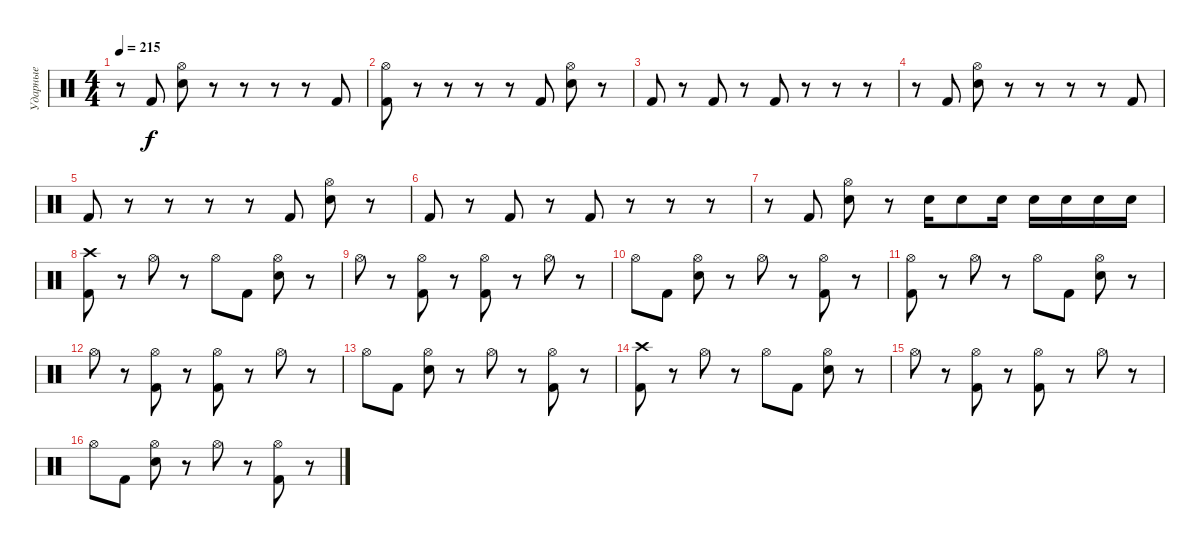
\track ("Ударные" "Ударные") {instrument percussion}
\staff {score}
\articulation defaults
\ts (4 4)
\tempo 215
\clef neutral
\ks c
r.8{dy f} "Kick (hit) 2".8 ("Hi-Hat (open)" "Snare (hit) 2").8 r.8 r.8 r.8 r.8 "Kick (hit) 2".8 |
("Hi-Hat (open)" "Kick (hit) 2").8 r.8 r.8 r.8 r.8 "Kick (hit) 2".8 ("Hi-Hat (open)" "Snare (hit) 2").8 r.8 |
"Kick (hit) 2".8 r.8 "Kick (hit) 2".8 r.8 "Kick (hit) 2".8 r.8 r.8 r.8 |
r.8 "Kick (hit) 2".8 ("Hi-Hat (open)" "Snare (hit) 2").8 r.8 r.8 r.8 r.8 "Kick (hit) 2".8 |
"Kick (hit) 2".8 r.8 r.8 r.8 r.8 "Kick (hit) 2".8 ("Hi-Hat (open)" "Snare (hit) 2").8 r.8 |
"Kick (hit) 2".8 r.8 "Kick (hit) 2".8 r.8 "Kick (hit) 2".8 r.8 r.8 r.8 |
r.8 "Kick (hit) 2".8 ("Hi-Hat (open)" "Snare (hit) 2").8 r.8 "Snare (hit) 2".16 "Snare (hit) 2".8 "Snare (hit) 2".16 "Snare (hit) 2".16 "Snare (hit) 2".16 "Snare (hit) 2".16 "Snare (hit) 2".16 |
("Crash high (hit)" "Kick (hit) 2").8 r.8 "Hi-Hat (open)".8 r.8 "Hi-Hat (open)".8 "Kick (hit) 2".8 ("Hi-Hat (open)" "Snare (hit) 2").8 r.8 |
"Hi-Hat (open)".8 r.8 ("Hi-Hat (open)" "Kick (hit) 2").8 r.8 ("Hi-Hat (open)" "Kick (hit) 2").8 r.8 "Hi-Hat (open)".8 r.8 |
"Hi-Hat (open)".8 "Kick (hit) 2".8 ("Hi-Hat (open)" "Snare (hit) 2").8 r.8 "Hi-Hat (open)".8 r.8 ("Hi-Hat (open)" "Kick (hit) 2").8 r.8 |
("Hi-Hat (open)" "Kick (hit) 2").8 r.8 "Hi-Hat (open)".8 r.8 "Hi-Hat (open)".8 "Kick (hit) 2".8 ("Hi-Hat (open)" "Snare (hit) 2").8 r.8 |
"Hi-Hat (open)".8 r.8 ("Hi-Hat (open)" "Kick (hit) 2").8 r.8 ("Hi-Hat (open)" "Kick (hit) 2").8 r.8 "Hi-Hat (open)".8 r.8 |
"Hi-Hat (open)".8 "Kick (hit) 2".8 ("Hi-Hat (open)" "Snare (hit) 2").8 r.8 "Hi-Hat (open)".8 r.8 ("Hi-Hat (open)" "Kick (hit) 2").8 r.8 |
("Crash high (hit)" "Kick (hit) 2").8 r.8 "Hi-Hat (open)".8 r.8 "Hi-Hat (open)".8 "Kick (hit) 2".8 ("Hi-Hat (open)" "Snare (hit) 2").8 r.8 |
"Hi-Hat (open)".8 r.8 ("Hi-Hat (open)" "Kick (hit) 2").8 r.8 ("Hi-Hat (open)" "Kick (hit) 2").8 r.8 "Hi-Hat (open)".8 r.8 |
"Hi-Hat (open)".8 "Kick (hit) 2".8 ("Hi-Hat (open)" "Snare (hit) 2").8 r.8 "Hi-Hat (open)".8 r.8 ("Hi-Hat (open)" "Kick (hit) 2").8 r.8
